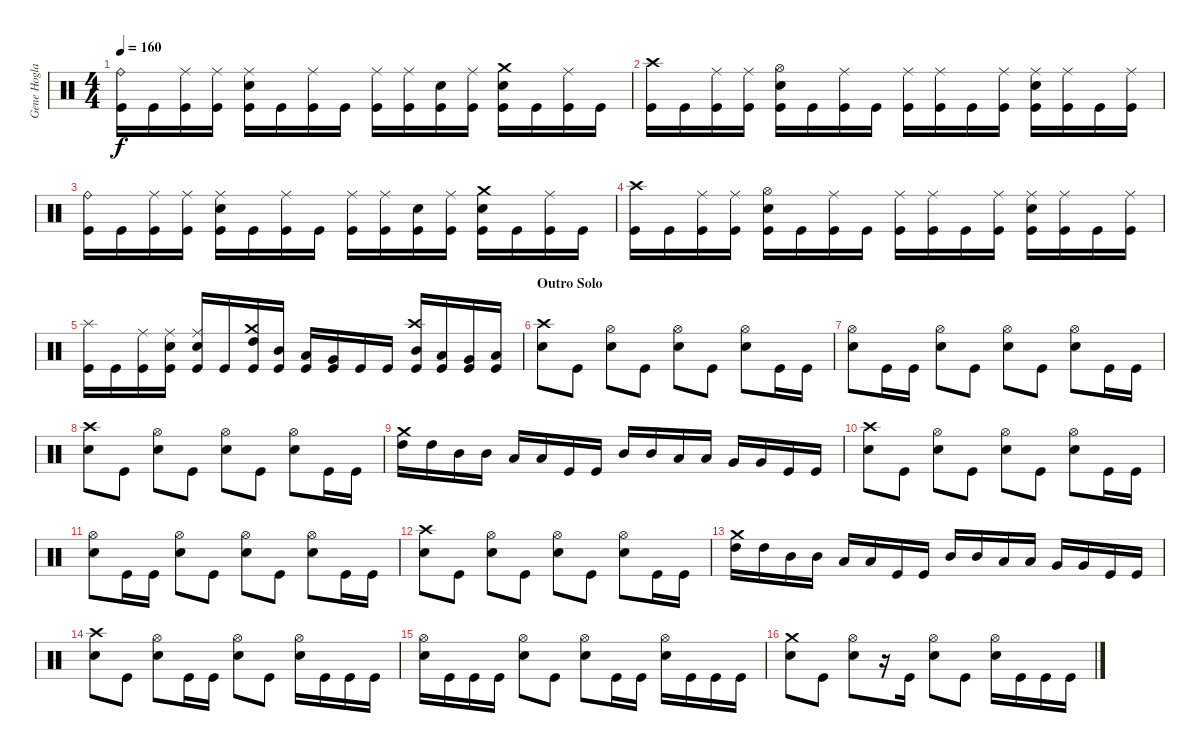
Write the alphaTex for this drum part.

\track ("Gene Hoglan" "Gene Hogla") {instrument percussion}
\staff {score}
\articulation defaults
\ts (4 4)
\tempo 160
\clef neutral
\ks c
("Ride (bell)" "Kick (hit)").16{dy f} "Kick (hit)".16 ("Ride (middle)" "Kick (hit)").16 ("Ride (middle)" "Kick (hit)").16 ("Ride (middle)" "Electric Snare (hit)" "Kick (hit)").16 "Kick (hit)".16 ("Ride (middle)" "Kick (hit)").16 "Kick (hit)".16 ("Ride (middle)" "Kick (hit)").16 ("Ride (middle)" "Kick (hit)").16 ("Electric Snare (hit)" "Kick (hit)").16 ("Ride (middle)" "Kick (hit)").16 ("Crash medium (hit)" "Electric Snare (hit)" "Kick (hit)").16 "Kick (hit)".16 ("Ride (middle)" "Kick (hit)").16 "Kick (hit)".16 |
("Crash high (hit)" "Kick (hit)").16 "Kick (hit)".16 ("Ride (middle)" "Kick (hit)").16 ("Ride (middle)" "Kick (hit)").16 ("Hi-Hat (open)" "Electric Snare (hit)" "Kick (hit)").16 "Kick (hit)".16 ("Ride (middle)" "Kick (hit)").16 "Kick (hit)".16 ("Ride (middle)" "Kick (hit)").16 ("Ride (middle)" "Kick (hit)").16 "Kick (hit)".16 ("Ride (middle)" "Kick (hit)").16 ("Ride (middle)" "Electric Snare (hit)" "Kick (hit)").16 ("Ride (middle)" "Kick (hit)").16 "Kick (hit)".16 ("Ride (middle)" "Kick (hit)").16 |
("Ride (bell)" "Kick (hit)").16 "Kick (hit)".16 ("Ride (middle)" "Kick (hit)").16 ("Ride (middle)" "Kick (hit)").16 ("Ride (middle)" "Electric Snare (hit)" "Kick (hit)").16 "Kick (hit)".16 ("Ride (middle)" "Kick (hit)").16 "Kick (hit)".16 ("Ride (middle)" "Kick (hit)").16 ("Ride (middle)" "Kick (hit)").16 ("Electric Snare (hit)" "Kick (hit)").16 ("Ride (middle)" "Kick (hit)").16 ("Crash medium (hit)" "Electric Snare (hit)" "Kick (hit)").16 "Kick (hit)".16 ("Ride (middle)" "Kick (hit)").16 "Kick (hit)".16 |
("Crash high (hit)" "Kick (hit)").16 "Kick (hit)".16 ("Ride (middle)" "Kick (hit)").16 ("Ride (middle)" "Kick (hit)").16 ("Hi-Hat (open)" "Electric Snare (hit)" "Kick (hit)").16 "Kick (hit)".16 ("Ride (middle)" "Kick (hit)").16 "Kick (hit)".16 ("Ride (middle)" "Kick (hit)").16 ("Ride (middle)" "Kick (hit)").16 "Kick (hit)".16 ("Ride (middle)" "Kick (hit)").16 ("Ride (middle)" "Electric Snare (hit)" "Kick (hit)").16 ("Ride (middle)" "Kick (hit)").16 "Kick (hit)".16 ("Ride (middle)" "Kick (hit)").16 |
("Splash (hit)" "Kick (hit)").16 "Kick (hit)".16 ("Ride (middle)" "Kick (hit)").16 ("Ride (middle)" "Electric Snare (hit)" "Kick (hit)").16 ("Ride (middle)" "Electric Snare (hit)" "Kick (hit)").16 "Kick (hit)".16 ("Crash medium (hit)" "High Tom (hit)" "Kick (hit)").16 ("Mid Tom (hit)" "Kick (hit)").16 ("Low Tom (hit)" "Kick (hit)").16 ("Very Low Tom (hit)" "Kick (hit)").16 "Kick (hit)".16 "Kick (hit)".16 ("Crash high (hit)" "Mid Tom (hit)" "Kick (hit)").16 ("Low Tom (hit)" "Kick (hit)").16 ("Very Low Tom (hit)" "Kick (hit)").16 ("Low Floor Tom (hit)" "Kick (hit)").16 |
\section ("" "Outro Solo")
("Crash high (hit)" "Electric Snare (hit)").8 "Kick (hit)".8 ("Hi-Hat (open)" "Electric Snare (hit)").8 "Kick (hit)".8 ("Hi-Hat (open)" "Electric Snare (hit)").8 "Kick (hit)".8 ("Hi-Hat (open)" "Electric Snare (hit)").8 "Kick (hit)".16 "Kick (hit)".16 |
("Hi-Hat (open)" "Electric Snare (hit)").8 "Kick (hit)".16 "Kick (hit)".16 ("Hi-Hat (open)" "Electric Snare (hit)").8 "Kick (hit)".8 ("Hi-Hat (open)" "Electric Snare (hit)").8 "Kick (hit)".8 ("Hi-Hat (open)" "Electric Snare (hit)").8 "Kick (hit)".16 "Kick (hit)".16 |
("Crash high (hit)" "Electric Snare (hit)").8 "Kick (hit)".8 ("Hi-Hat (open)" "Electric Snare (hit)").8 "Kick (hit)".8 ("Hi-Hat (open)" "Electric Snare (hit)").8 "Kick (hit)".8 ("Hi-Hat (open)" "Electric Snare (hit)").8 "Kick (hit)".16 "Kick (hit)".16 |
("Crash medium (hit)" "High Tom (hit)").16 "High Tom (hit)".16 "Mid Tom (hit)".16 "Mid Tom (hit)".16 "Low Tom (hit)".16 "Low Tom (hit)".16 "Kick (hit)".16 "Kick (hit)".16 "Mid Tom (hit)".16 "Mid Tom (hit)".16 "Low Tom (hit)".16 "Low Tom (hit)".16 "Very Low Tom (hit)".16 "Very Low Tom (hit)".16 "Kick (hit)".16 "Kick (hit)".16 |
("Crash high (hit)" "Electric Snare (hit)").8 "Kick (hit)".8 ("Hi-Hat (open)" "Electric Snare (hit)").8 "Kick (hit)".8 ("Hi-Hat (open)" "Electric Snare (hit)").8 "Kick (hit)".8 ("Hi-Hat (open)" "Electric Snare (hit)").8 "Kick (hit)".16 "Kick (hit)".16 |
("Hi-Hat (open)" "Electric Snare (hit)").8 "Kick (hit)".16 "Kick (hit)".16 ("Hi-Hat (open)" "Electric Snare (hit)").8 "Kick (hit)".8 ("Hi-Hat (open)" "Electric Snare (hit)").8 "Kick (hit)".8 ("Hi-Hat (open)" "Electric Snare (hit)").8 "Kick (hit)".16 "Kick (hit)".16 |
("Crash high (hit)" "Electric Snare (hit)").8 "Kick (hit)".8 ("Hi-Hat (open)" "Electric Snare (hit)").8 "Kick (hit)".8 ("Hi-Hat (open)" "Electric Snare (hit)").8 "Kick (hit)".8 ("Hi-Hat (open)" "Electric Snare (hit)").8 "Kick (hit)".16 "Kick (hit)".16 |
("Crash medium (hit)" "High Tom (hit)").16 "High Tom (hit)".16 "Mid Tom (hit)".16 "Mid Tom (hit)".16 "Low Tom (hit)".16 "Low Tom (hit)".16 "Kick (hit)".16 "Kick (hit)".16 "Mid Tom (hit)".16 "Mid Tom (hit)".16 "Low Tom (hit)".16 "Low Tom (hit)".16 "Very Low Tom (hit)".16 "Very Low Tom (hit)".16 "Kick (hit)".16 "Kick (hit)".16 |
("Crash high (hit)" "Electric Snare (hit)").8 "Kick (hit)".8 ("Hi-Hat (open)" "Electric Snare (hit)").8 "Kick (hit)".16 "Kick (hit)".16 ("Hi-Hat (open)" "Electric Snare (hit)").8 "Kick (hit)".8 ("Hi-Hat (open)" "Electric Snare (hit)").16 "Kick (hit)".16 "Kick (hit)".16 "Kick (hit)".16 |
("Hi-Hat (open)" "Electric Snare (hit)").16 "Kick (hit)".16 "Kick (hit)".16 "Kick (hit)".16 ("Hi-Hat (open)" "Electric Snare (hit)").8 "Kick (hit)".8 ("Hi-Hat (open)" "Electric Snare (hit)").8 "Kick (hit)".16 "Kick (hit)".16 ("Hi-Hat (open)" "Electric Snare (hit)").16 "Kick (hit)".16 "Kick (hit)".16 "Kick (hit)".16 |
("Crash medium (hit)" "Electric Snare (hit)").8 "Kick (hit)".8 ("Hi-Hat (open)" "Electric Snare (hit)").8 r.16 "Kick (hit)".16 ("Hi-Hat (open)" "Electric Snare (hit)").8 "Kick (hit)".8 ("Hi-Hat (open)" "Electric Snare (hit)").16 "Kick (hit)".16 "Kick (hit)".16 "Kick (hit)".16
